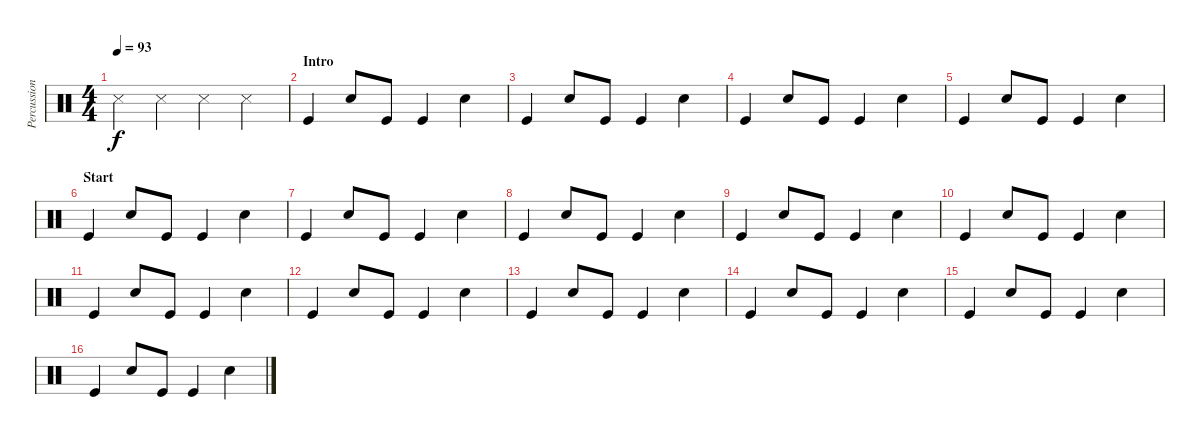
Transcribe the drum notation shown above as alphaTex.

\track ("Percussion" "Percussion") {instrument percussion}
\staff {score}
\articulation defaults
\ts (4 4)
\tempo 93
\clef neutral
\ks c "Metronome (hit)".4{dy f} "Metronome (hit)".4 "Metronome (hit)".4 "Metronome (hit)".4
|
\section ("" "Intro")
"Kick (hit)".4 "Electric Snare (hit)".8 "Kick (hit)".8 "Kick (hit)".4 "Electric Snare (hit)".4 |
"Kick (hit)".4 "Electric Snare (hit)".8 "Kick (hit)".8 "Kick (hit)".4 "Electric Snare (hit)".4 |
"Kick (hit)".4 "Electric Snare (hit)".8 "Kick (hit)".8 "Kick (hit)".4 "Electric Snare (hit)".4 |
"Kick (hit)".4 "Electric Snare (hit)".8 "Kick (hit)".8 "Kick (hit)".4 "Electric Snare (hit)".4 |
\section ("" "Start")
"Kick (hit)".4 "Electric Snare (hit)".8 "Kick (hit)".8 "Kick (hit)".4 "Electric Snare (hit)".4 |
"Kick (hit)".4 "Electric Snare (hit)".8 "Kick (hit)".8 "Kick (hit)".4 "Electric Snare (hit)".4 |
"Kick (hit)".4 "Electric Snare (hit)".8 "Kick (hit)".8 "Kick (hit)".4 "Electric Snare (hit)".4 |
"Kick (hit)".4 "Electric Snare (hit)".8 "Kick (hit)".8 "Kick (hit)".4 "Electric Snare (hit)".4 |
"Kick (hit)".4 "Electric Snare (hit)".8 "Kick (hit)".8 "Kick (hit)".4 "Electric Snare (hit)".4 |
"Kick (hit)".4 "Electric Snare (hit)".8 "Kick (hit)".8 "Kick (hit)".4 "Electric Snare (hit)".4 |
"Kick (hit)".4 "Electric Snare (hit)".8 "Kick (hit)".8 "Kick (hit)".4 "Electric Snare (hit)".4 |
"Kick (hit)".4 "Electric Snare (hit)".8 "Kick (hit)".8 "Kick (hit)".4 "Electric Snare (hit)".4 |
"Kick (hit)".4 "Electric Snare (hit)".8 "Kick (hit)".8 "Kick (hit)".4 "Electric Snare (hit)".4 |
"Kick (hit)".4 "Electric Snare (hit)".8 "Kick (hit)".8 "Kick (hit)".4 "Electric Snare (hit)".4 |
"Kick (hit)".4 "Electric Snare (hit)".8 "Kick (hit)".8 "Kick (hit)".4 "Electric Snare (hit)".4
